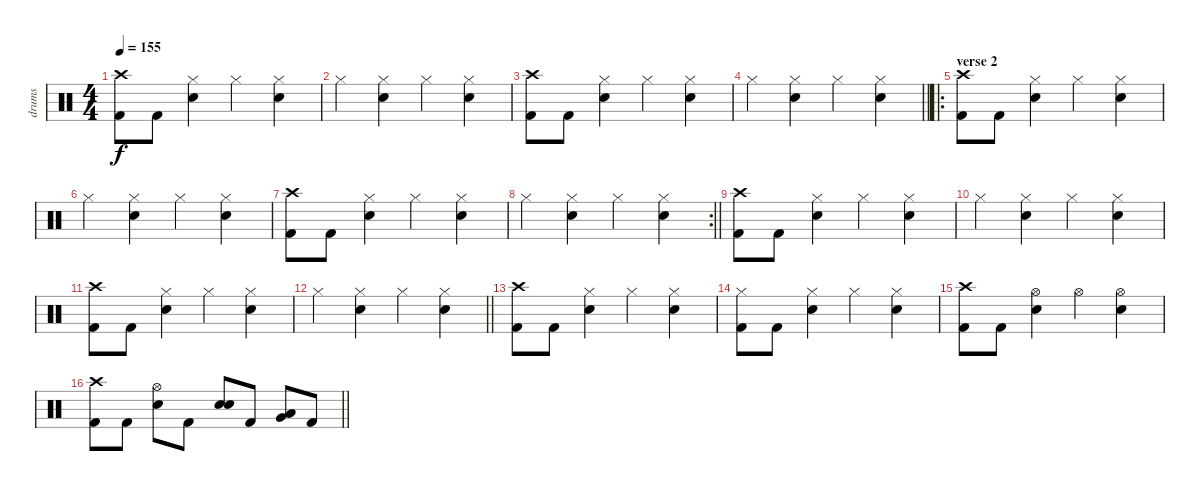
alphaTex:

\track ("drums" "drums") {instrument percussion}
\staff
\articulation defaults
\ts (4 4)
\tempo 155
\clef neutral
\ks c
("Crash high (hit)" "Kick (hit) 2").8{dy f} "Kick (hit) 2".8 ("Hi-Hat (closed)" "Electric Snare (hit)").4 "Hi-Hat (closed)".4 ("Hi-Hat (closed)" "Electric Snare (hit)").4 |
"Hi-Hat (closed)".4 ("Hi-Hat (closed)" "Electric Snare (hit)").4 "Hi-Hat (closed)".4 ("Hi-Hat (closed)" "Electric Snare (hit)").4 |
("Crash high (hit)" "Kick (hit) 2").8 "Kick (hit) 2".8 ("Hi-Hat (closed)" "Electric Snare (hit)").4 "Hi-Hat (closed)".4 ("Hi-Hat (closed)" "Electric Snare (hit)").4 |
\barLineRight lightlight "Hi-Hat (closed)".4
("Hi-Hat (closed)" "Electric Snare (hit)").4 "Hi-Hat (closed)".4 ("Hi-Hat (closed)" "Electric Snare (hit)").4 |
\ro
\section ("" "verse 2")
("Crash high (hit)" "Kick (hit) 2").8 "Kick (hit) 2".8 ("Hi-Hat (closed)" "Electric Snare (hit)").4 "Hi-Hat (closed)".4 ("Hi-Hat (closed)" "Electric Snare (hit)").4 |
"Hi-Hat (closed)".4 ("Hi-Hat (closed)" "Electric Snare (hit)").4 "Hi-Hat (closed)".4 ("Hi-Hat (closed)" "Electric Snare (hit)").4 |
("Crash high (hit)" "Kick (hit) 2").8 "Kick (hit) 2".8 ("Hi-Hat (closed)" "Electric Snare (hit)").4 "Hi-Hat (closed)".4 ("Hi-Hat (closed)" "Electric Snare (hit)").4 |
\rc 2
\barLineRight lightlight "Hi-Hat (closed)".4
("Hi-Hat (closed)" "Electric Snare (hit)").4 "Hi-Hat (closed)".4 ("Hi-Hat (closed)" "Electric Snare (hit)").4 |
("Crash high (hit)" "Kick (hit) 2").8 "Kick (hit) 2".8 ("Hi-Hat (closed)" "Electric Snare (hit)").4 "Hi-Hat (closed)".4 ("Hi-Hat (closed)" "Electric Snare (hit)").4 |
"Hi-Hat (closed)".4 ("Hi-Hat (closed)" "Electric Snare (hit)").4 "Hi-Hat (closed)".4 ("Hi-Hat (closed)" "Electric Snare (hit)").4 |
("Crash high (hit)" "Kick (hit) 2").8 "Kick (hit) 2".8 ("Hi-Hat (closed)" "Electric Snare (hit)").4 "Hi-Hat (closed)".4 ("Hi-Hat (closed)" "Electric Snare (hit)").4 |
\barLineRight lightlight "Hi-Hat (closed)".4
("Hi-Hat (closed)" "Electric Snare (hit)").4 "Hi-Hat (closed)".4 ("Hi-Hat (closed)" "Electric Snare (hit)").4 |
("Crash high (hit)" "Kick (hit) 2").8 "Kick (hit) 2".8 ("Hi-Hat (closed)" "Electric Snare (hit)").4 "Hi-Hat (closed)".4 ("Hi-Hat (closed)" "Electric Snare (hit)").4 |
("Hi-Hat (closed)" "Kick (hit) 2").8 "Kick (hit) 2".8 ("Hi-Hat (closed)" "Electric Snare (hit)").4 "Hi-Hat (closed)".4 ("Hi-Hat (closed)" "Electric Snare (hit)").4 |
("Crash high (hit)" "Kick (hit) 2").8 "Kick (hit) 2".8 ("Hi-Hat (open)" "Electric Snare (hit)").4 "Hi-Hat (open)".4 ("Hi-Hat (open)" "Electric Snare (hit)").4 |
\barLineRight lightlight
("Crash high (hit)" "Kick (hit) 2").8 "Kick (hit) 2".8 ("Hi-Hat (open)" "Electric Snare (hit)").8 "Kick (hit) 2".8 ("Electric Snare (hit)" "Electric Snare (hit)").8{bd 480} "Kick (hit) 2".8 ("Very Low Tom (hit)" "Low Floor Tom (hit)").8 "Kick (hit) 2".8
